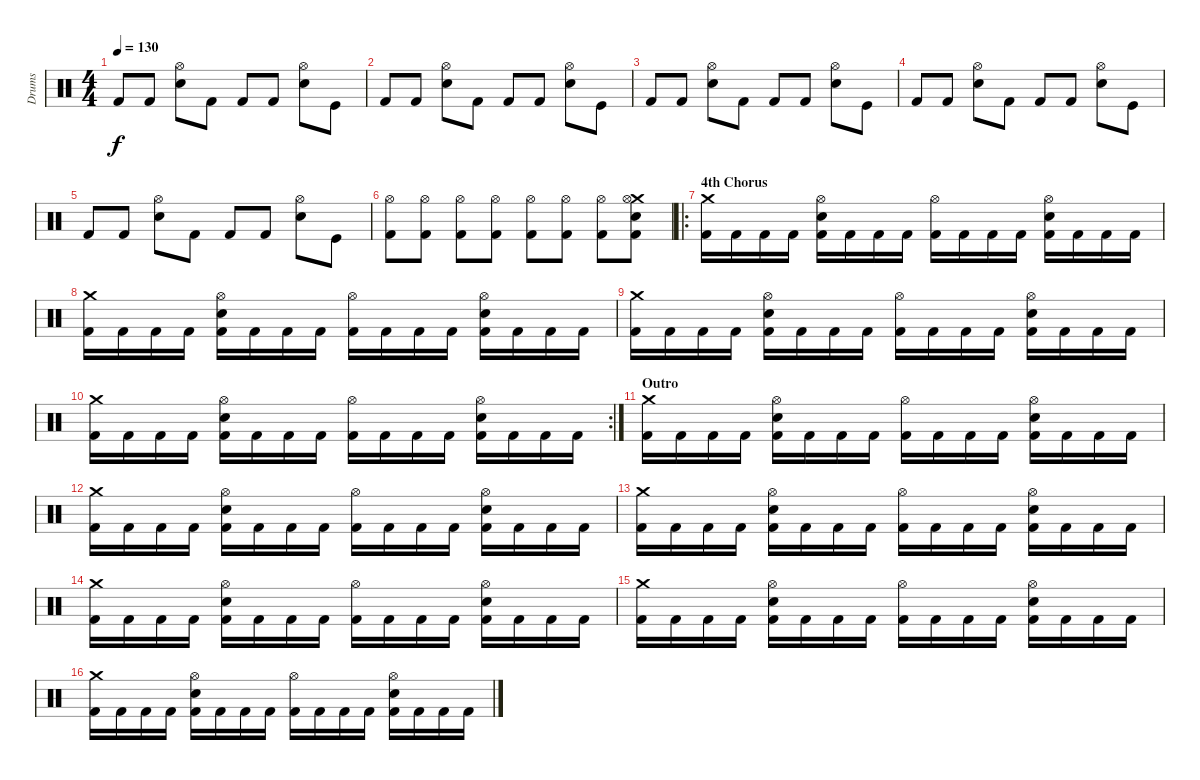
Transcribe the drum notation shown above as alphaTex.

\track ("Drums" "Drums") {instrument percussion}
\staff {score}
\articulation defaults
\ts (4 4)
\tempo 130
\clef neutral
\ks c "Kick (hit) 2".8{dy f} "Kick (hit) 2".8
("Electric Snare (hit)" "Hi-Hat (open)").8 "Kick (hit) 2".8 "Kick (hit) 2".8 "Kick (hit) 2".8 ("Electric Snare (hit)" "Hi-Hat (open)").8 "Kick (hit)".8 |
"Kick (hit) 2".8 "Kick (hit) 2".8 ("Electric Snare (hit)" "Hi-Hat (open)").8 "Kick (hit) 2".8 "Kick (hit) 2".8 "Kick (hit) 2".8 ("Electric Snare (hit)" "Hi-Hat (open)").8 "Kick (hit)".8 |
"Kick (hit) 2".8 "Kick (hit) 2".8 ("Electric Snare (hit)" "Hi-Hat (open)").8 "Kick (hit) 2".8 "Kick (hit) 2".8 "Kick (hit) 2".8 ("Electric Snare (hit)" "Hi-Hat (open)").8 "Kick (hit)".8 |
"Kick (hit) 2".8 "Kick (hit) 2".8 ("Electric Snare (hit)" "Hi-Hat (open)").8 "Kick (hit) 2".8 "Kick (hit) 2".8 "Kick (hit) 2".8 ("Electric Snare (hit)" "Hi-Hat (open)").8 "Kick (hit)".8 |
"Kick (hit) 2".8 "Kick (hit) 2".8 ("Electric Snare (hit)" "Hi-Hat (open)").8 "Kick (hit) 2".8 "Kick (hit) 2".8 "Kick (hit) 2".8 ("Electric Snare (hit)" "Hi-Hat (open)").8 "Kick (hit)".8{volume 0} |
("Kick (hit) 2" "Hi-Hat (open)").8{volume 16} ("Kick (hit) 2" "Hi-Hat (open)").8 ("Kick (hit) 2" "Hi-Hat (open)").8 ("Kick (hit) 2" "Hi-Hat (open)").8 ("Kick (hit) 2" "Hi-Hat (open)").8 ("Kick (hit) 2" "Hi-Hat (open)").8 ("Kick (hit) 2" "Hi-Hat (open)").8 ("Kick (hit) 2" "Crash medium (hit)" "Hi-Hat (open)" "Electric Snare (hit)").8 |
\ro
\section ("" "4th Chorus")
("Kick (hit) 2" "Crash medium (hit)").16{volume 10} "Kick (hit) 2".16 "Kick (hit) 2".16 "Kick (hit) 2".16 ("Kick (hit) 2" "Electric Snare (hit)" "Hi-Hat (open)").16 "Kick (hit) 2".16 "Kick (hit) 2".16 "Kick (hit) 2".16 ("Kick (hit) 2" "Hi-Hat (open)").16 "Kick (hit) 2".16 "Kick (hit) 2".16 "Kick (hit) 2".16 ("Kick (hit) 2" "Electric Snare (hit)" "Hi-Hat (open)").16 "Kick (hit) 2".16 "Kick (hit) 2".16 "Kick (hit) 2".16 |
("Kick (hit) 2" "Crash medium (hit)").16 "Kick (hit) 2".16 "Kick (hit) 2".16 "Kick (hit) 2".16 ("Kick (hit) 2" "Electric Snare (hit)" "Hi-Hat (open)").16 "Kick (hit) 2".16 "Kick (hit) 2".16 "Kick (hit) 2".16 ("Kick (hit) 2" "Hi-Hat (open)").16 "Kick (hit) 2".16 "Kick (hit) 2".16 "Kick (hit) 2".16 ("Kick (hit) 2" "Electric Snare (hit)" "Hi-Hat (open)").16 "Kick (hit) 2".16 "Kick (hit) 2".16 "Kick (hit) 2".16 |
("Kick (hit) 2" "Crash medium (hit)").16 "Kick (hit) 2".16 "Kick (hit) 2".16 "Kick (hit) 2".16 ("Kick (hit) 2" "Electric Snare (hit)" "Hi-Hat (open)").16 "Kick (hit) 2".16 "Kick (hit) 2".16 "Kick (hit) 2".16 ("Kick (hit) 2" "Hi-Hat (open)").16 "Kick (hit) 2".16 "Kick (hit) 2".16 "Kick (hit) 2".16 ("Kick (hit) 2" "Electric Snare (hit)" "Hi-Hat (open)").16 "Kick (hit) 2".16 "Kick (hit) 2".16 "Kick (hit) 2".16 |
\rc 2
("Kick (hit) 2" "Crash medium (hit)").16 "Kick (hit) 2".16 "Kick (hit) 2".16 "Kick (hit) 2".16 ("Kick (hit) 2" "Electric Snare (hit)" "Hi-Hat (open)").16 "Kick (hit) 2".16 "Kick (hit) 2".16 "Kick (hit) 2".16 ("Kick (hit) 2" "Hi-Hat (open)").16 "Kick (hit) 2".16 "Kick (hit) 2".16 "Kick (hit) 2".16 ("Kick (hit) 2" "Electric Snare (hit)" "Hi-Hat (open)").16 "Kick (hit) 2".16 "Kick (hit) 2".16 "Kick (hit) 2".16 |
\section ("" "Outro")
("Kick (hit) 2" "Crash medium (hit)").16{volume 0} "Kick (hit) 2".16 "Kick (hit) 2".16 "Kick (hit) 2".16 ("Kick (hit) 2" "Electric Snare (hit)" "Hi-Hat (open)").16 "Kick (hit) 2".16 "Kick (hit) 2".16 "Kick (hit) 2".16 ("Kick (hit) 2" "Hi-Hat (open)").16 "Kick (hit) 2".16 "Kick (hit) 2".16 "Kick (hit) 2".16 ("Kick (hit) 2" "Electric Snare (hit)" "Hi-Hat (open)").16 "Kick (hit) 2".16 "Kick (hit) 2".16 "Kick (hit) 2".16 |
("Kick (hit) 2" "Crash medium (hit)").16 "Kick (hit) 2".16 "Kick (hit) 2".16 "Kick (hit) 2".16 ("Kick (hit) 2" "Electric Snare (hit)" "Hi-Hat (open)").16 "Kick (hit) 2".16 "Kick (hit) 2".16 "Kick (hit) 2".16 ("Kick (hit) 2" "Hi-Hat (open)").16 "Kick (hit) 2".16 "Kick (hit) 2".16 "Kick (hit) 2".16 ("Kick (hit) 2" "Electric Snare (hit)" "Hi-Hat (open)").16 "Kick (hit) 2".16 "Kick (hit) 2".16 "Kick (hit) 2".16 |
("Kick (hit) 2" "Crash medium (hit)").16 "Kick (hit) 2".16 "Kick (hit) 2".16 "Kick (hit) 2".16 ("Kick (hit) 2" "Electric Snare (hit)" "Hi-Hat (open)").16 "Kick (hit) 2".16 "Kick (hit) 2".16 "Kick (hit) 2".16 ("Kick (hit) 2" "Hi-Hat (open)").16 "Kick (hit) 2".16 "Kick (hit) 2".16 "Kick (hit) 2".16 ("Kick (hit) 2" "Electric Snare (hit)" "Hi-Hat (open)").16 "Kick (hit) 2".16 "Kick (hit) 2".16 "Kick (hit) 2".16 |
("Kick (hit) 2" "Crash medium (hit)").16 "Kick (hit) 2".16 "Kick (hit) 2".16 "Kick (hit) 2".16 ("Kick (hit) 2" "Electric Snare (hit)" "Hi-Hat (open)").16 "Kick (hit) 2".16 "Kick (hit) 2".16 "Kick (hit) 2".16 ("Kick (hit) 2" "Hi-Hat (open)").16 "Kick (hit) 2".16 "Kick (hit) 2".16 "Kick (hit) 2".16 ("Kick (hit) 2" "Electric Snare (hit)" "Hi-Hat (open)").16 "Kick (hit) 2".16 "Kick (hit) 2".16 "Kick (hit) 2".16 |
("Kick (hit) 2" "Crash medium (hit)").16 "Kick (hit) 2".16 "Kick (hit) 2".16 "Kick (hit) 2".16 ("Kick (hit) 2" "Electric Snare (hit)" "Hi-Hat (open)").16 "Kick (hit) 2".16 "Kick (hit) 2".16 "Kick (hit) 2".16 ("Kick (hit) 2" "Hi-Hat (open)").16 "Kick (hit) 2".16 "Kick (hit) 2".16 "Kick (hit) 2".16 ("Kick (hit) 2" "Electric Snare (hit)" "Hi-Hat (open)").16 "Kick (hit) 2".16 "Kick (hit) 2".16 "Kick (hit) 2".16 |
("Kick (hit) 2" "Crash medium (hit)").16 "Kick (hit) 2".16 "Kick (hit) 2".16 "Kick (hit) 2".16 ("Kick (hit) 2" "Electric Snare (hit)" "Hi-Hat (open)").16 "Kick (hit) 2".16 "Kick (hit) 2".16 "Kick (hit) 2".16 ("Kick (hit) 2" "Hi-Hat (open)").16 "Kick (hit) 2".16 "Kick (hit) 2".16 "Kick (hit) 2".16 ("Kick (hit) 2" "Electric Snare (hit)" "Hi-Hat (open)").16 "Kick (hit) 2".16 "Kick (hit) 2".16 "Kick (hit) 2".16
